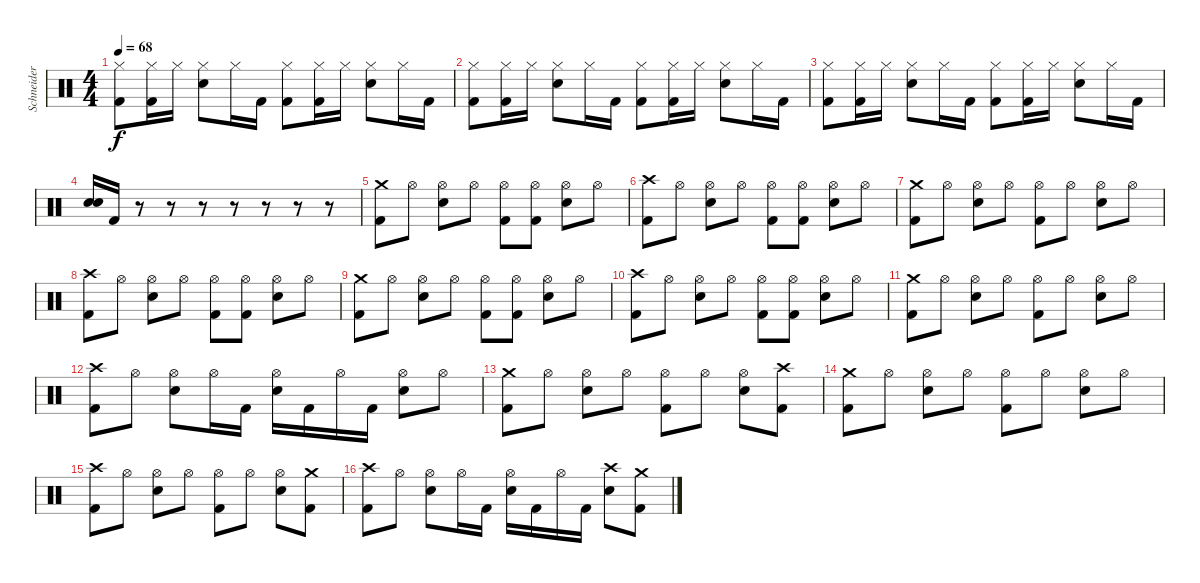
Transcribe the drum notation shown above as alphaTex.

\track ("Schneider" "Schneider") {instrument percussion}
\staff {score}
\articulation defaults
\ts (4 4)
\tempo 68
\clef neutral
\ks c
("Hi-Hat (closed)" "Kick (hit) 2").8{dy f} ("Hi-Hat (closed)" "Kick (hit) 2").16 "Hi-Hat (closed)".16 ("Hi-Hat (closed)" "Electric Snare (hit)").8 "Hi-Hat (closed)".16 "Kick (hit) 2".16 ("Hi-Hat (closed)" "Kick (hit) 2").8 ("Hi-Hat (closed)" "Kick (hit) 2").16 "Hi-Hat (closed)".16 ("Hi-Hat (closed)" "Electric Snare (hit)").8 "Hi-Hat (closed)".16 "Kick (hit) 2".16 |
("Hi-Hat (closed)" "Kick (hit) 2").8 ("Hi-Hat (closed)" "Kick (hit) 2").16 "Hi-Hat (closed)".16 ("Hi-Hat (closed)" "Electric Snare (hit)").8 "Hi-Hat (closed)".16 "Kick (hit) 2".16 ("Hi-Hat (closed)" "Kick (hit) 2").8 ("Hi-Hat (closed)" "Kick (hit) 2").16 "Hi-Hat (closed)".16 ("Hi-Hat (closed)" "Electric Snare (hit)").8 "Hi-Hat (closed)".16 "Kick (hit) 2".16 |
("Hi-Hat (closed)" "Kick (hit) 2").8 ("Hi-Hat (closed)" "Kick (hit) 2").16 "Hi-Hat (closed)".16 ("Hi-Hat (closed)" "Electric Snare (hit)").8 "Hi-Hat (closed)".16 "Kick (hit) 2".16 ("Hi-Hat (closed)" "Kick (hit) 2").8 ("Hi-Hat (closed)" "Kick (hit) 2").16 "Hi-Hat (closed)".16 ("Hi-Hat (closed)" "Electric Snare (hit)").8 "Hi-Hat (closed)".16 "Kick (hit) 2".16 |
("Electric Snare (hit)" "Electric Snare (hit)").16 "Kick (hit) 2".16 r.8 r.8 r.8 r.8 r.8 r.8 r.8 |
("Crash medium (hit)" "Kick (hit) 2").8 "Hi-Hat (open)".8 ("Hi-Hat (open)" "Electric Snare (hit)").8 "Hi-Hat (open)".8 ("Hi-Hat (open)" "Kick (hit) 2").8 ("Hi-Hat (open)" "Kick (hit) 2").8 ("Hi-Hat (open)" "Electric Snare (hit)").8 "Hi-Hat (open)".8 |
("Crash high (hit)" "Kick (hit) 2").8 "Hi-Hat (open)".8 ("Hi-Hat (open)" "Electric Snare (hit)").8 "Hi-Hat (open)".8 ("Hi-Hat (open)" "Kick (hit) 2").8 ("Hi-Hat (open)" "Kick (hit) 2").8 ("Hi-Hat (open)" "Electric Snare (hit)").8 "Hi-Hat (open)".8 |
("Crash medium (hit)" "Kick (hit) 2").8 "Hi-Hat (open)".8 ("Hi-Hat (open)" "Electric Snare (hit)").8 "Hi-Hat (open)".8 ("Hi-Hat (open)" "Kick (hit) 2").8 "Hi-Hat (open)".8 ("Hi-Hat (open)" "Electric Snare (hit)").8 "Hi-Hat (open)".8 |
("Crash high (hit)" "Kick (hit) 2").8 "Hi-Hat (open)".8 ("Hi-Hat (open)" "Electric Snare (hit)").8 "Hi-Hat (open)".8 ("Hi-Hat (open)" "Kick (hit) 2").8 ("Hi-Hat (open)" "Kick (hit) 2").8 ("Hi-Hat (open)" "Electric Snare (hit)").8 "Hi-Hat (open)".8 |
("Crash medium (hit)" "Kick (hit) 2").8 "Hi-Hat (open)".8 ("Hi-Hat (open)" "Electric Snare (hit)").8 "Hi-Hat (open)".8 ("Hi-Hat (open)" "Kick (hit) 2").8 ("Hi-Hat (open)" "Kick (hit) 2").8 ("Hi-Hat (open)" "Electric Snare (hit)").8 "Hi-Hat (open)".8 |
("Crash high (hit)" "Kick (hit) 2").8 "Hi-Hat (open)".8 ("Hi-Hat (open)" "Electric Snare (hit)").8 "Hi-Hat (open)".8 ("Hi-Hat (open)" "Kick (hit) 2").8 ("Hi-Hat (open)" "Kick (hit) 2").8 ("Hi-Hat (open)" "Electric Snare (hit)").8 "Hi-Hat (open)".8 |
("Crash medium (hit)" "Kick (hit) 2").8 "Hi-Hat (open)".8 ("Hi-Hat (open)" "Electric Snare (hit)").8 "Hi-Hat (open)".8 ("Hi-Hat (open)" "Kick (hit) 2").8 "Hi-Hat (open)".8 ("Hi-Hat (open)" "Electric Snare (hit)").8 "Hi-Hat (open)".8 |
("Crash high (hit)" "Kick (hit) 2").8 "Hi-Hat (open)".8 ("Hi-Hat (open)" "Electric Snare (hit)").8 "Hi-Hat (open)".16 "Kick (hit) 2".16 ("Hi-Hat (open)" "Electric Snare (hit)").16 "Kick (hit) 2".16 "Hi-Hat (open)".16 "Kick (hit) 2".16 ("Hi-Hat (open)" "Electric Snare (hit)").8 "Hi-Hat (open)".8 |
("Crash medium (hit)" "Kick (hit) 2").8 "Hi-Hat (open)".8 ("Hi-Hat (open)" "Electric Snare (hit)").8 "Hi-Hat (open)".8 ("Hi-Hat (open)" "Kick (hit) 2").8 "Hi-Hat (open)".8 ("Hi-Hat (open)" "Electric Snare (hit)").8 ("Crash high (hit)" "Kick (hit) 2").8 |
("Crash medium (hit)" "Kick (hit) 2").8 "Hi-Hat (open)".8 ("Hi-Hat (open)" "Electric Snare (hit)").8 "Hi-Hat (open)".8 ("Hi-Hat (open)" "Kick (hit) 2").8 "Hi-Hat (open)".8 ("Hi-Hat (open)" "Electric Snare (hit)").8 "Hi-Hat (open)".8 |
("Crash high (hit)" "Kick (hit) 2").8 "Hi-Hat (open)".8 ("Hi-Hat (open)" "Electric Snare (hit)").8 "Hi-Hat (open)".8 ("Hi-Hat (open)" "Kick (hit) 2").8 "Hi-Hat (open)".8 ("Hi-Hat (open)" "Electric Snare (hit)").8 ("Crash medium (hit)" "Kick (hit) 2").8 |
("Crash high (hit)" "Kick (hit) 2").8 "Hi-Hat (open)".8 ("Hi-Hat (open)" "Electric Snare (hit)").8 "Hi-Hat (open)".16 "Kick (hit) 2".16 ("Hi-Hat (open)" "Electric Snare (hit)").16 "Kick (hit) 2".16 "Hi-Hat (open)".16 "Kick (hit) 2".16 ("Crash high (hit)" "Electric Snare (hit)").8 ("Crash medium (hit)" "Kick (hit) 2").8
